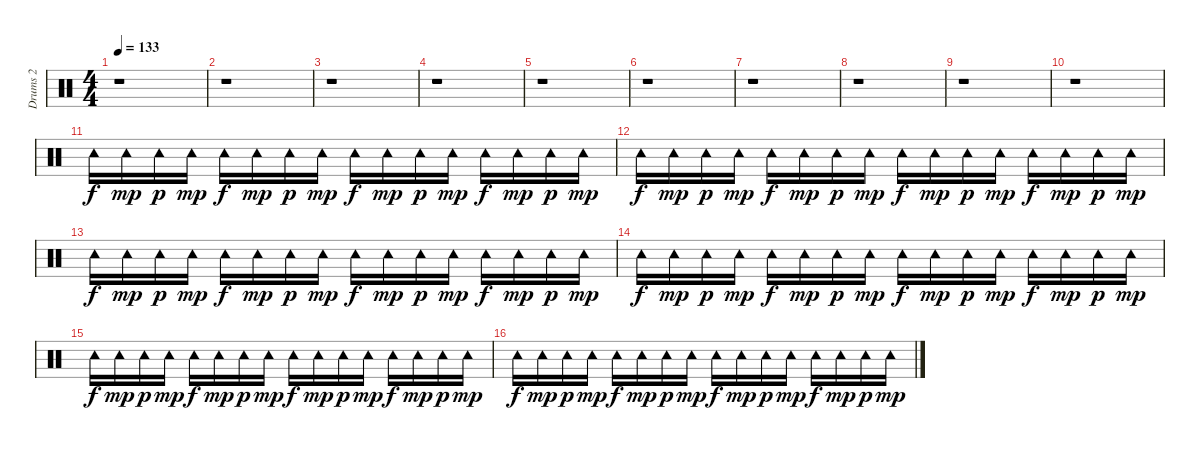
\track ("Drums 2" "Drums 2") {instrument percussion}
\staff {score}
\articulation defaults
\ts (4 4)
\tempo 133
\clef neutral
\ks c
r.1{dy mp} |
r.1 |
r.1 |
r.1 |
r.1 |
r.1 |
r.1 |
r.1 |
r.1 |
r.1 |
"Tambourine (hit)".16{dy f} "Tambourine (hit)".16{dy mp} "Tambourine (hit)".16{dy p} "Tambourine (hit)".16{dy mp} "Tambourine (hit)".16{dy f} "Tambourine (hit)".16{dy mp} "Tambourine (hit)".16{dy p} "Tambourine (hit)".16{dy mp} "Tambourine (hit)".16{dy f} "Tambourine (hit)".16{dy mp} "Tambourine (hit)".16{dy p} "Tambourine (hit)".16{dy mp} "Tambourine (hit)".16{dy f} "Tambourine (hit)".16{dy mp} "Tambourine (hit)".16{dy p} "Tambourine (hit)".16{dy mp} |
"Tambourine (hit)".16{dy f} "Tambourine (hit)".16{dy mp} "Tambourine (hit)".16{dy p} "Tambourine (hit)".16{dy mp} "Tambourine (hit)".16{dy f} "Tambourine (hit)".16{dy mp} "Tambourine (hit)".16{dy p} "Tambourine (hit)".16{dy mp} "Tambourine (hit)".16{dy f} "Tambourine (hit)".16{dy mp} "Tambourine (hit)".16{dy p} "Tambourine (hit)".16{dy mp} "Tambourine (hit)".16{dy f} "Tambourine (hit)".16{dy mp} "Tambourine (hit)".16{dy p} "Tambourine (hit)".16{dy mp} |
"Tambourine (hit)".16{dy f} "Tambourine (hit)".16{dy mp} "Tambourine (hit)".16{dy p} "Tambourine (hit)".16{dy mp} "Tambourine (hit)".16{dy f} "Tambourine (hit)".16{dy mp} "Tambourine (hit)".16{dy p} "Tambourine (hit)".16{dy mp} "Tambourine (hit)".16{dy f} "Tambourine (hit)".16{dy mp} "Tambourine (hit)".16{dy p} "Tambourine (hit)".16{dy mp} "Tambourine (hit)".16{dy f} "Tambourine (hit)".16{dy mp} "Tambourine (hit)".16{dy p} "Tambourine (hit)".16{dy mp} |
"Tambourine (hit)".16{dy f} "Tambourine (hit)".16{dy mp} "Tambourine (hit)".16{dy p} "Tambourine (hit)".16{dy mp} "Tambourine (hit)".16{dy f} "Tambourine (hit)".16{dy mp} "Tambourine (hit)".16{dy p} "Tambourine (hit)".16{dy mp} "Tambourine (hit)".16{dy f} "Tambourine (hit)".16{dy mp} "Tambourine (hit)".16{dy p} "Tambourine (hit)".16{dy mp} "Tambourine (hit)".16{dy f} "Tambourine (hit)".16{dy mp} "Tambourine (hit)".16{dy p} "Tambourine (hit)".16{dy mp} |
"Tambourine (hit)".16{dy f} "Tambourine (hit)".16{dy mp} "Tambourine (hit)".16{dy p} "Tambourine (hit)".16{dy mp} "Tambourine (hit)".16{dy f} "Tambourine (hit)".16{dy mp} "Tambourine (hit)".16{dy p} "Tambourine (hit)".16{dy mp} "Tambourine (hit)".16{dy f} "Tambourine (hit)".16{dy mp} "Tambourine (hit)".16{dy p} "Tambourine (hit)".16{dy mp} "Tambourine (hit)".16{dy f} "Tambourine (hit)".16{dy mp} "Tambourine (hit)".16{dy p} "Tambourine (hit)".16{dy mp} |
"Tambourine (hit)".16{dy f} "Tambourine (hit)".16{dy mp} "Tambourine (hit)".16{dy p} "Tambourine (hit)".16{dy mp} "Tambourine (hit)".16{dy f} "Tambourine (hit)".16{dy mp} "Tambourine (hit)".16{dy p} "Tambourine (hit)".16{dy mp} "Tambourine (hit)".16{dy f} "Tambourine (hit)".16{dy mp} "Tambourine (hit)".16{dy p} "Tambourine (hit)".16{dy mp} "Tambourine (hit)".16{dy f} "Tambourine (hit)".16{dy mp} "Tambourine (hit)".16{dy p} "Tambourine (hit)".16{dy mp}
